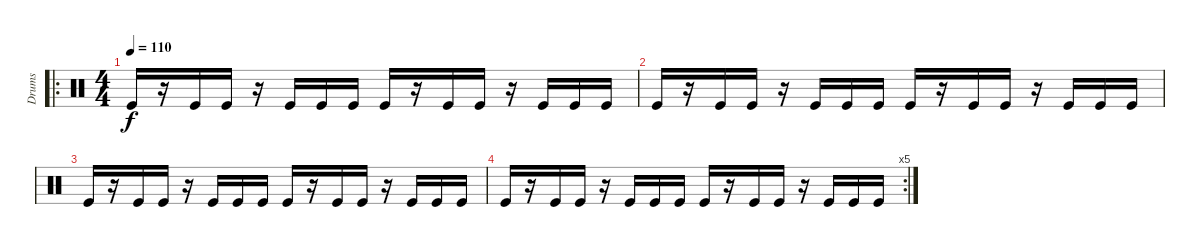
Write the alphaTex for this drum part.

\track ("Drums" "Drums") {instrument percussion}
\staff {score}
\articulation defaults
\ro
\ts (4 4)
\tempo 110
\clef neutral
\ks c "Kick (hit)".16{dy f}
r.16 "Kick (hit)".16 "Kick (hit)".16 r.16 "Kick (hit)".16 "Kick (hit)".16 "Kick (hit)".16 "Kick (hit)".16 r.16 "Kick (hit)".16 "Kick (hit)".16 r.16 "Kick (hit)".16 "Kick (hit)".16 "Kick (hit)".16 |
"Kick (hit)".16 r.16 "Kick (hit)".16 "Kick (hit)".16 r.16 "Kick (hit)".16 "Kick (hit)".16 "Kick (hit)".16 "Kick (hit)".16 r.16 "Kick (hit)".16 "Kick (hit)".16 r.16 "Kick (hit)".16 "Kick (hit)".16 "Kick (hit)".16 |
"Kick (hit)".16 r.16 "Kick (hit)".16 "Kick (hit)".16 r.16 "Kick (hit)".16 "Kick (hit)".16 "Kick (hit)".16 "Kick (hit)".16 r.16 "Kick (hit)".16 "Kick (hit)".16 r.16 "Kick (hit)".16 "Kick (hit)".16 "Kick (hit)".16 |
\rc 5 "Kick (hit)".16
r.16 "Kick (hit)".16 "Kick (hit)".16 r.16 "Kick (hit)".16 "Kick (hit)".16 "Kick (hit)".16 "Kick (hit)".16 r.16 "Kick (hit)".16 "Kick (hit)".16 r.16 "Kick (hit)".16 "Kick (hit)".16 "Kick (hit)".16
